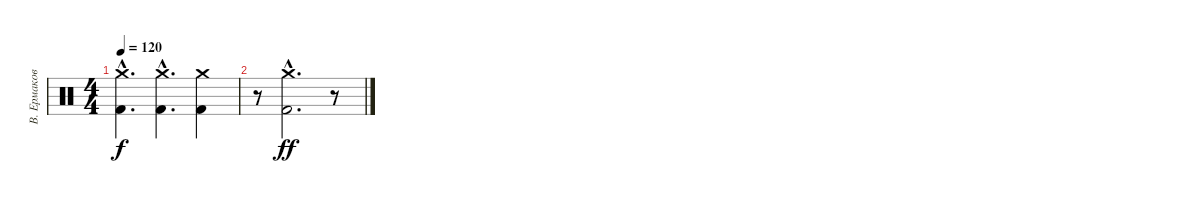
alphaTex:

\track ("В. Ермаков" "В. Ермаков") {instrument percussion}
\staff {score}
\articulation defaults
\ts (4 4)
\tempo 120
\clef neutral
\ks c
("Crash medium (hit)"{hac} "Kick (hit) 2"{hac}).4{d dy f} ("Crash medium (hit)"{hac} "Kick (hit) 2"{hac}).4{d} ("Crash medium (hit)" "Kick (hit) 2").4 |
r.8 ("Crash medium (hit)"{hac} "Kick (hit) 2"{hac}).2{d dy ff} r.8
